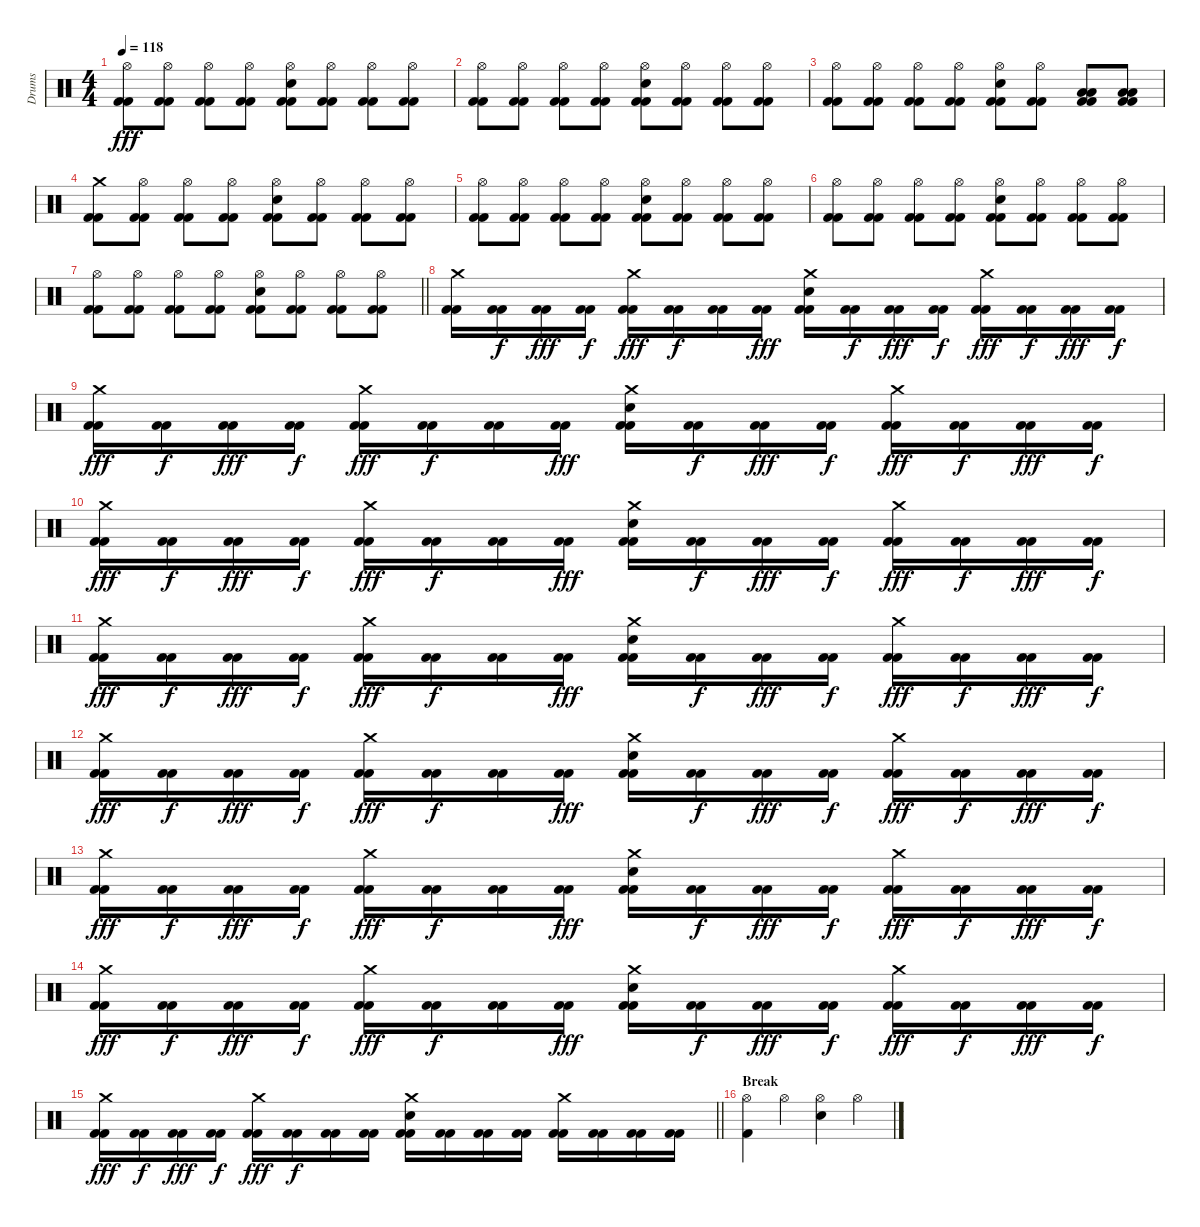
\track ("Drums" "Drums") {instrument percussion}
\staff {score}
\articulation defaults
\ts (4 4)
\tempo 118
\clef neutral
\ks c
("Hi-Hat (open)" "Kick (hit) 2" "Kick (hit) 2").8{dy fff} ("Hi-Hat (open)" "Kick (hit) 2" "Kick (hit) 2").8 ("Hi-Hat (open)" "Kick (hit) 2" "Kick (hit) 2").8 ("Hi-Hat (open)" "Kick (hit) 2" "Kick (hit) 2").8 ("Hi-Hat (open)" "Electric Snare (hit)" "Kick (hit) 2" "Kick (hit) 2").8 ("Hi-Hat (open)" "Kick (hit) 2" "Kick (hit) 2").8 ("Hi-Hat (open)" "Kick (hit) 2" "Kick (hit) 2").8 ("Hi-Hat (open)" "Kick (hit) 2" "Kick (hit) 2").8 |
("Hi-Hat (open)" "Kick (hit) 2" "Kick (hit) 2").8 ("Hi-Hat (open)" "Kick (hit) 2" "Kick (hit) 2").8 ("Hi-Hat (open)" "Kick (hit) 2" "Kick (hit) 2").8 ("Hi-Hat (open)" "Kick (hit) 2" "Kick (hit) 2").8 ("Hi-Hat (open)" "Electric Snare (hit)" "Kick (hit) 2" "Kick (hit) 2").8 ("Hi-Hat (open)" "Kick (hit) 2" "Kick (hit) 2").8 ("Hi-Hat (open)" "Kick (hit) 2" "Kick (hit) 2").8 ("Hi-Hat (open)" "Kick (hit) 2" "Kick (hit) 2").8 |
("Hi-Hat (open)" "Kick (hit) 2" "Kick (hit) 2").8 ("Hi-Hat (open)" "Kick (hit) 2" "Kick (hit) 2").8 ("Hi-Hat (open)" "Kick (hit) 2" "Kick (hit) 2").8 ("Hi-Hat (open)" "Kick (hit) 2" "Kick (hit) 2").8 ("Hi-Hat (open)" "Electric Snare (hit)" "Kick (hit) 2" "Kick (hit) 2").8 ("Hi-Hat (open)" "Kick (hit) 2" "Kick (hit) 2").8 ("Low Floor Tom (hit)" "Low Tom (hit)" "Kick (hit) 2" "Kick (hit) 2").8 ("Low Floor Tom (hit)" "Low Tom (hit)" "Kick (hit) 2" "Kick (hit) 2").8 |
("Crash medium (hit)" "Kick (hit) 2" "Kick (hit) 2").8 ("Hi-Hat (open)" "Kick (hit) 2" "Kick (hit) 2").8 ("Hi-Hat (open)" "Kick (hit) 2" "Kick (hit) 2").8 ("Hi-Hat (open)" "Kick (hit) 2" "Kick (hit) 2").8 ("Hi-Hat (open)" "Electric Snare (hit)" "Kick (hit) 2" "Kick (hit) 2").8 ("Hi-Hat (open)" "Kick (hit) 2" "Kick (hit) 2").8 ("Hi-Hat (open)" "Kick (hit) 2" "Kick (hit) 2").8 ("Hi-Hat (open)" "Kick (hit) 2" "Kick (hit) 2").8 |
("Hi-Hat (open)" "Kick (hit) 2" "Kick (hit) 2").8 ("Hi-Hat (open)" "Kick (hit) 2" "Kick (hit) 2").8 ("Hi-Hat (open)" "Kick (hit) 2" "Kick (hit) 2").8 ("Hi-Hat (open)" "Kick (hit) 2" "Kick (hit) 2").8 ("Hi-Hat (open)" "Electric Snare (hit)" "Kick (hit) 2" "Kick (hit) 2").8 ("Hi-Hat (open)" "Kick (hit) 2" "Kick (hit) 2").8 ("Hi-Hat (open)" "Kick (hit) 2" "Kick (hit) 2").8 ("Hi-Hat (open)" "Kick (hit) 2" "Kick (hit) 2").8 |
("Hi-Hat (open)" "Kick (hit) 2" "Kick (hit) 2").8 ("Hi-Hat (open)" "Kick (hit) 2" "Kick (hit) 2").8 ("Hi-Hat (open)" "Kick (hit) 2" "Kick (hit) 2").8 ("Hi-Hat (open)" "Kick (hit) 2" "Kick (hit) 2").8 ("Hi-Hat (open)" "Electric Snare (hit)" "Kick (hit) 2" "Kick (hit) 2").8 ("Hi-Hat (open)" "Kick (hit) 2" "Kick (hit) 2").8 ("Hi-Hat (open)" "Kick (hit) 2" "Kick (hit) 2").8 ("Hi-Hat (open)" "Kick (hit) 2" "Kick (hit) 2").8 |
\barLineRight lightlight
("Hi-Hat (open)" "Kick (hit) 2" "Kick (hit) 2").8 ("Hi-Hat (open)" "Kick (hit) 2" "Kick (hit) 2").8 ("Hi-Hat (open)" "Kick (hit) 2" "Kick (hit) 2").8 ("Hi-Hat (open)" "Kick (hit) 2" "Kick (hit) 2").8 ("Hi-Hat (open)" "Electric Snare (hit)" "Kick (hit) 2" "Kick (hit) 2").8 ("Hi-Hat (open)" "Kick (hit) 2" "Kick (hit) 2").8 ("Hi-Hat (open)" "Kick (hit) 2" "Kick (hit) 2").8 ("Hi-Hat (open)" "Kick (hit) 2" "Kick (hit) 2").8 |
("Crash medium (hit)" "Kick (hit) 2" "Kick (hit) 2").16 ("Kick (hit) 2" "Kick (hit) 2").16{dy f} ("Kick (hit) 2" "Kick (hit) 2").16{dy fff} ("Kick (hit) 2" "Kick (hit) 2").16{dy f} ("Crash medium (hit)" "Kick (hit) 2" "Kick (hit) 2").16{dy fff} ("Kick (hit) 2" "Kick (hit) 2").16{dy f} ("Kick (hit) 2" "Kick (hit) 2").16 ("Kick (hit) 2" "Kick (hit) 2").16{dy fff} ("Crash medium (hit)" "Electric Snare (hit)" "Kick (hit) 2" "Kick (hit) 2").16 ("Kick (hit) 2" "Kick (hit) 2").16{dy f} ("Kick (hit) 2" "Kick (hit) 2").16{dy fff} ("Kick (hit) 2" "Kick (hit) 2").16{dy f} ("Crash medium (hit)" "Kick (hit) 2" "Kick (hit) 2").16{dy fff} ("Kick (hit) 2" "Kick (hit) 2").16{dy f} ("Kick (hit) 2" "Kick (hit) 2").16{dy fff} ("Kick (hit) 2" "Kick (hit) 2").16{dy f} |
("Crash medium (hit)" "Kick (hit) 2" "Kick (hit) 2").16{dy fff} ("Kick (hit) 2" "Kick (hit) 2").16{dy f} ("Kick (hit) 2" "Kick (hit) 2").16{dy fff} ("Kick (hit) 2" "Kick (hit) 2").16{dy f} ("Crash medium (hit)" "Kick (hit) 2" "Kick (hit) 2").16{dy fff} ("Kick (hit) 2" "Kick (hit) 2").16{dy f} ("Kick (hit) 2" "Kick (hit) 2").16 ("Kick (hit) 2" "Kick (hit) 2").16{dy fff} ("Crash medium (hit)" "Electric Snare (hit)" "Kick (hit) 2" "Kick (hit) 2").16 ("Kick (hit) 2" "Kick (hit) 2").16{dy f} ("Kick (hit) 2" "Kick (hit) 2").16{dy fff} ("Kick (hit) 2" "Kick (hit) 2").16{dy f} ("Crash medium (hit)" "Kick (hit) 2" "Kick (hit) 2").16{dy fff} ("Kick (hit) 2" "Kick (hit) 2").16{dy f} ("Kick (hit) 2" "Kick (hit) 2").16{dy fff} ("Kick (hit) 2" "Kick (hit) 2").16{dy f} |
("Crash medium (hit)" "Kick (hit) 2" "Kick (hit) 2").16{dy fff} ("Kick (hit) 2" "Kick (hit) 2").16{dy f} ("Kick (hit) 2" "Kick (hit) 2").16{dy fff} ("Kick (hit) 2" "Kick (hit) 2").16{dy f} ("Crash medium (hit)" "Kick (hit) 2" "Kick (hit) 2").16{dy fff} ("Kick (hit) 2" "Kick (hit) 2").16{dy f} ("Kick (hit) 2" "Kick (hit) 2").16 ("Kick (hit) 2" "Kick (hit) 2").16{dy fff} ("Crash medium (hit)" "Electric Snare (hit)" "Kick (hit) 2" "Kick (hit) 2").16 ("Kick (hit) 2" "Kick (hit) 2").16{dy f} ("Kick (hit) 2" "Kick (hit) 2").16{dy fff} ("Kick (hit) 2" "Kick (hit) 2").16{dy f} ("Crash medium (hit)" "Kick (hit) 2" "Kick (hit) 2").16{dy fff} ("Kick (hit) 2" "Kick (hit) 2").16{dy f} ("Kick (hit) 2" "Kick (hit) 2").16{dy fff} ("Kick (hit) 2" "Kick (hit) 2").16{dy f} |
("Crash medium (hit)" "Kick (hit) 2" "Kick (hit) 2").16{dy fff} ("Kick (hit) 2" "Kick (hit) 2").16{dy f} ("Kick (hit) 2" "Kick (hit) 2").16{dy fff} ("Kick (hit) 2" "Kick (hit) 2").16{dy f} ("Crash medium (hit)" "Kick (hit) 2" "Kick (hit) 2").16{dy fff} ("Kick (hit) 2" "Kick (hit) 2").16{dy f} ("Kick (hit) 2" "Kick (hit) 2").16 ("Kick (hit) 2" "Kick (hit) 2").16{dy fff} ("Crash medium (hit)" "Electric Snare (hit)" "Kick (hit) 2" "Kick (hit) 2").16 ("Kick (hit) 2" "Kick (hit) 2").16{dy f} ("Kick (hit) 2" "Kick (hit) 2").16{dy fff} ("Kick (hit) 2" "Kick (hit) 2").16{dy f} ("Crash medium (hit)" "Kick (hit) 2" "Kick (hit) 2").16{dy fff} ("Kick (hit) 2" "Kick (hit) 2").16{dy f} ("Kick (hit) 2" "Kick (hit) 2").16{dy fff} ("Kick (hit) 2" "Kick (hit) 2").16{dy f} |
("Crash medium (hit)" "Kick (hit) 2" "Kick (hit) 2").16{dy fff} ("Kick (hit) 2" "Kick (hit) 2").16{dy f} ("Kick (hit) 2" "Kick (hit) 2").16{dy fff} ("Kick (hit) 2" "Kick (hit) 2").16{dy f} ("Crash medium (hit)" "Kick (hit) 2" "Kick (hit) 2").16{dy fff} ("Kick (hit) 2" "Kick (hit) 2").16{dy f} ("Kick (hit) 2" "Kick (hit) 2").16 ("Kick (hit) 2" "Kick (hit) 2").16{dy fff} ("Crash medium (hit)" "Electric Snare (hit)" "Kick (hit) 2" "Kick (hit) 2").16 ("Kick (hit) 2" "Kick (hit) 2").16{dy f} ("Kick (hit) 2" "Kick (hit) 2").16{dy fff} ("Kick (hit) 2" "Kick (hit) 2").16{dy f} ("Crash medium (hit)" "Kick (hit) 2" "Kick (hit) 2").16{dy fff} ("Kick (hit) 2" "Kick (hit) 2").16{dy f} ("Kick (hit) 2" "Kick (hit) 2").16{dy fff} ("Kick (hit) 2" "Kick (hit) 2").16{dy f} |
("Crash medium (hit)" "Kick (hit) 2" "Kick (hit) 2").16{dy fff} ("Kick (hit) 2" "Kick (hit) 2").16{dy f} ("Kick (hit) 2" "Kick (hit) 2").16{dy fff} ("Kick (hit) 2" "Kick (hit) 2").16{dy f} ("Crash medium (hit)" "Kick (hit) 2" "Kick (hit) 2").16{dy fff} ("Kick (hit) 2" "Kick (hit) 2").16{dy f} ("Kick (hit) 2" "Kick (hit) 2").16 ("Kick (hit) 2" "Kick (hit) 2").16{dy fff} ("Crash medium (hit)" "Electric Snare (hit)" "Kick (hit) 2" "Kick (hit) 2").16 ("Kick (hit) 2" "Kick (hit) 2").16{dy f} ("Kick (hit) 2" "Kick (hit) 2").16{dy fff} ("Kick (hit) 2" "Kick (hit) 2").16{dy f} ("Crash medium (hit)" "Kick (hit) 2" "Kick (hit) 2").16{dy fff} ("Kick (hit) 2" "Kick (hit) 2").16{dy f} ("Kick (hit) 2" "Kick (hit) 2").16{dy fff} ("Kick (hit) 2" "Kick (hit) 2").16{dy f} |
("Crash medium (hit)" "Kick (hit) 2" "Kick (hit) 2").16{dy fff} ("Kick (hit) 2" "Kick (hit) 2").16{dy f} ("Kick (hit) 2" "Kick (hit) 2").16{dy fff} ("Kick (hit) 2" "Kick (hit) 2").16{dy f} ("Crash medium (hit)" "Kick (hit) 2" "Kick (hit) 2").16{dy fff} ("Kick (hit) 2" "Kick (hit) 2").16{dy f} ("Kick (hit) 2" "Kick (hit) 2").16 ("Kick (hit) 2" "Kick (hit) 2").16{dy fff} ("Crash medium (hit)" "Electric Snare (hit)" "Kick (hit) 2" "Kick (hit) 2").16 ("Kick (hit) 2" "Kick (hit) 2").16{dy f} ("Kick (hit) 2" "Kick (hit) 2").16{dy fff} ("Kick (hit) 2" "Kick (hit) 2").16{dy f} ("Crash medium (hit)" "Kick (hit) 2" "Kick (hit) 2").16{dy fff} ("Kick (hit) 2" "Kick (hit) 2").16{dy f} ("Kick (hit) 2" "Kick (hit) 2").16{dy fff} ("Kick (hit) 2" "Kick (hit) 2").16{dy f} |
\barLineRight lightlight
("Crash medium (hit)" "Kick (hit) 2" "Kick (hit) 2").16{dy fff} ("Kick (hit) 2" "Kick (hit) 2").16{dy f} ("Kick (hit) 2" "Kick (hit) 2").16{dy fff} ("Kick (hit) 2" "Kick (hit) 2").16{dy f} ("Crash medium (hit)" "Kick (hit) 2" "Kick (hit) 2").16{dy fff} ("Kick (hit) 2" "Kick (hit) 2").16{dy f} ("Kick (hit) 2" "Kick (hit) 2").16 ("Kick (hit) 2" "Kick (hit) 2").16 ("Crash medium (hit)" "Electric Snare (hit)" "Kick (hit) 2" "Kick (hit) 2").16 ("Kick (hit) 2" "Kick (hit) 2").16 ("Kick (hit) 2" "Kick (hit) 2").16 ("Kick (hit) 2" "Kick (hit) 2").16 ("Crash medium (hit)" "Kick (hit) 2" "Kick (hit) 2").16 ("Kick (hit) 2" "Kick (hit) 2").16 ("Kick (hit) 2" "Kick (hit) 2").16 ("Kick (hit) 2" "Kick (hit) 2").16 |
\section ("" "Break")
("Hi-Hat (open)" "Kick (hit) 2").4 "Hi-Hat (open)".4 ("Hi-Hat (open)" "Electric Snare (hit)").4 "Hi-Hat (open)".4
